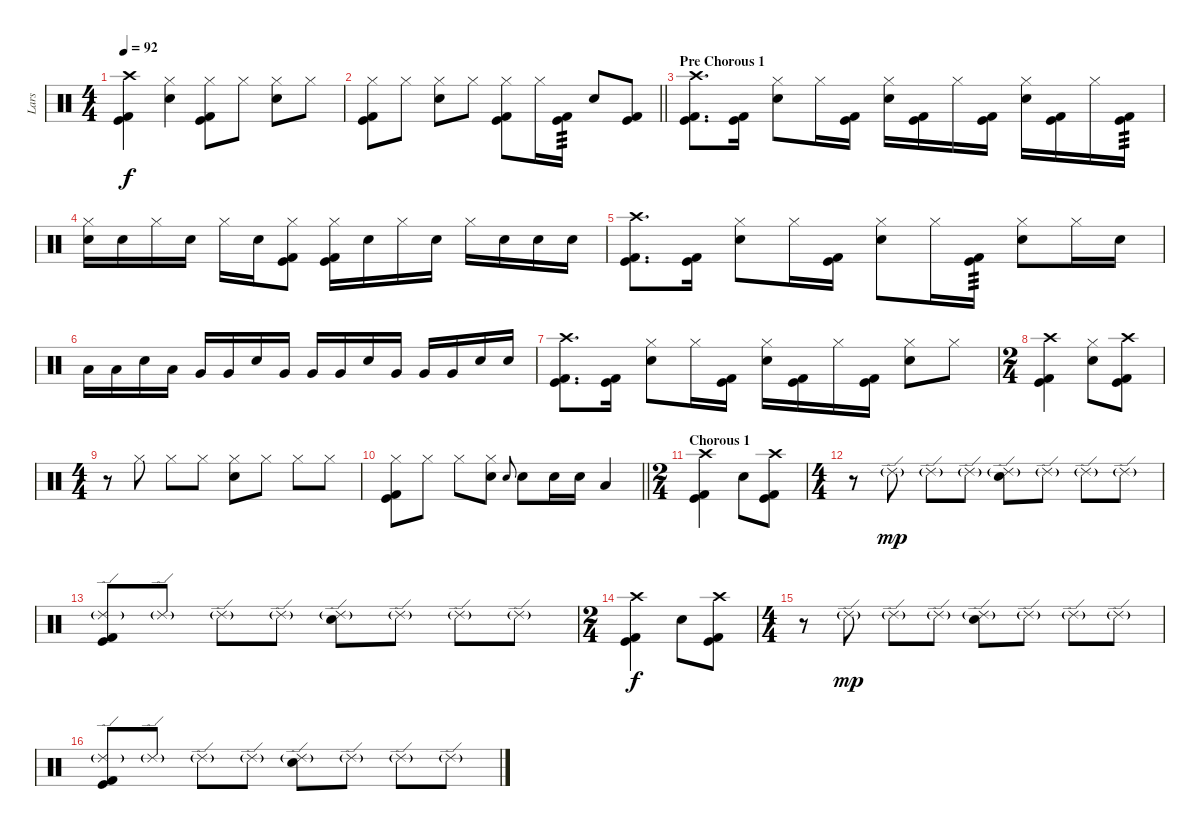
\track ("Lars" "Lars") {instrument percussion}
\staff {score}
\articulation defaults
\ts (4 4)
\tempo 92
\clef neutral
\ks c
("Crash high (hit)" "Kick (hit)" "Kick (hit) 2").4{dy f} ("Hi-Hat (closed)" "Electric Snare (hit)").4 ("Hi-Hat (closed)" "Kick (hit)" "Kick (hit) 2").8 "Hi-Hat (closed)".8 ("Hi-Hat (closed)" "Electric Snare (hit)").8 "Hi-Hat (closed)".8 |
\barLineRight lightlight
("Hi-Hat (closed)" "Kick (hit)" "Kick (hit) 2").8 "Hi-Hat (closed)".8 ("Hi-Hat (closed)" "Electric Snare (hit)").8 "Hi-Hat (closed)".8 ("Hi-Hat (closed)" "Kick (hit)" "Kick (hit) 2").8 "Hi-Hat (closed)".16 ("Kick (hit)" "Kick (hit) 2").16{tp 3} "Electric Snare (hit)".8 ("Kick (hit)" "Kick (hit) 2").8 |
\section ("" "Pre Chorous 1")
("Crash high (hit)" "Kick (hit)" "Kick (hit) 2").8{d} ("Kick (hit)" "Kick (hit) 2").16 ("Hi-Hat (closed)" "Electric Snare (hit)").8 "Hi-Hat (closed)".16 ("Kick (hit)" "Kick (hit) 2").16 ("Hi-Hat (closed)" "Electric Snare (hit)").16 ("Kick (hit)" "Kick (hit) 2").16 "Hi-Hat (closed)".16 ("Kick (hit)" "Kick (hit) 2").16 ("Hi-Hat (closed)" "Electric Snare (hit)").16 ("Kick (hit)" "Kick (hit) 2").16 "Hi-Hat (closed)".16 ("Kick (hit)" "Kick (hit) 2").16{tp 3} |
("Hi-Hat (closed)" "Electric Snare (hit)").16 "Electric Snare (hit)".16 "Hi-Hat (closed)".16 "Electric Snare (hit)".16 "Hi-Hat (closed)".16 "Electric Snare (hit)".16 ("Hi-Hat (closed)" "Kick (hit)" "Kick (hit) 2").8 ("Hi-Hat (closed)" "Kick (hit)" "Kick (hit) 2").16 "Electric Snare (hit)".16 "Hi-Hat (closed)".16 "Electric Snare (hit)".16 "Hi-Hat (closed)".16 "Electric Snare (hit)".16 "Electric Snare (hit)".16 "Electric Snare (hit)".16 |
("Crash high (hit)" "Kick (hit)" "Kick (hit) 2").8{d} ("Kick (hit)" "Kick (hit) 2").16 ("Hi-Hat (closed)" "Electric Snare (hit)").8 "Hi-Hat (closed)".16 ("Kick (hit)" "Kick (hit) 2").16 ("Hi-Hat (closed)" "Electric Snare (hit)").8 "Hi-Hat (closed)".16 ("Kick (hit)" "Kick (hit) 2").16{tp 3} ("Hi-Hat (closed)" "Electric Snare (hit)").8 "Hi-Hat (closed)".16 "Electric Snare (hit)".16 |
"Low Tom (hit)".16 "Low Tom (hit)".16 "Electric Snare (hit)".16 "Low Tom (hit)".16 "Very Low Tom (hit)".16 "Very Low Tom (hit)".16 "Electric Snare (hit)".16 "Very Low Tom (hit)".16 "Very Low Tom (hit)".16 "Very Low Tom (hit)".16 "Electric Snare (hit)".16 "Very Low Tom (hit)".16 "Very Low Tom (hit)".16 "Very Low Tom (hit)".16 "Electric Snare (hit)".16 "Electric Snare (hit)".16 |
("Crash high (hit)" "Kick (hit)" "Kick (hit) 2").8{d} ("Kick (hit)" "Kick (hit) 2").16 ("Hi-Hat (closed)" "Electric Snare (hit)").8 "Hi-Hat (closed)".16 ("Kick (hit)" "Kick (hit) 2").16 ("Hi-Hat (closed)" "Electric Snare (hit)").16 ("Kick (hit)" "Kick (hit) 2").16 "Hi-Hat (closed)".16 ("Kick (hit)" "Kick (hit) 2").16 ("Hi-Hat (closed)" "Electric Snare (hit)").8 "Hi-Hat (closed)".8 |
\ts (2 4)
("Crash high (hit)" "Kick (hit)" "Kick (hit) 2").4 ("Hi-Hat (closed)" "Electric Snare (hit)").8 ("Crash high (hit)" "Kick (hit)" "Kick (hit) 2").8 |
\ts (4 4)
r.8 "Hi-Hat (closed)".8 "Hi-Hat (closed)".8 "Hi-Hat (closed)".8 ("Hi-Hat (closed)" "Electric Snare (hit)").8 "Hi-Hat (closed)".8 "Hi-Hat (closed)".8 "Hi-Hat (closed)".8 |
\barLineRight lightlight
("Hi-Hat (closed)" "Kick (hit)" "Kick (hit) 2").8 "Hi-Hat (closed)".8 "Hi-Hat (closed)".8 ("Hi-Hat (closed)" "Electric Snare (hit)").8 "Electric Snare (hit)".8{gr onbeat} "Electric Snare (hit)".8 "Electric Snare (hit)".16 "Electric Snare (hit)".16 "Low Tom (hit)".4 |
\ts (2 4)
\section ("" "Chorous 1")
("Crash high (hit)" "Kick (hit)" "Kick (hit) 2").4 "Electric Snare (hit)".8 ("Crash high (hit)" "Kick (hit)" "Kick (hit) 2").8 |
\ts (4 4)
r.8 "Ride (edge) 2"{g}.8{dy mp} "Ride (edge) 2"{g}.8 "Ride (edge) 2"{g}.8 ("Ride (edge) 2"{g} "Electric Snare (hit)").8 "Ride (edge) 2"{g}.8 "Ride (edge) 2"{g}.8 "Ride (edge) 2"{g}.8 |
("Ride (edge) 2"{g} "Kick (hit)" "Kick (hit) 2").8 "Ride (edge) 2"{g}.8 "Ride (edge) 2"{g}.8 "Ride (edge) 2"{g}.8 ("Ride (edge) 2"{g} "Electric Snare (hit)").8 "Ride (edge) 2"{g}.8 "Ride (edge) 2"{g}.8 "Ride (edge) 2"{g}.8 |
\ts (2 4)
("Crash high (hit)" "Kick (hit)" "Kick (hit) 2").4{dy f} "Electric Snare (hit)".8 ("Crash high (hit)" "Kick (hit)" "Kick (hit) 2").8 |
\ts (4 4)
r.8 "Ride (edge) 2"{g}.8{dy mp} "Ride (edge) 2"{g}.8 "Ride (edge) 2"{g}.8 ("Ride (edge) 2"{g} "Electric Snare (hit)").8 "Ride (edge) 2"{g}.8 "Ride (edge) 2"{g}.8 "Ride (edge) 2"{g}.8 |
("Ride (edge) 2"{g} "Kick (hit)" "Kick (hit) 2").8 "Ride (edge) 2"{g}.8 "Ride (edge) 2"{g}.8 "Ride (edge) 2"{g}.8 ("Ride (edge) 2"{g} "Electric Snare (hit)").8 "Ride (edge) 2"{g}.8 "Ride (edge) 2"{g}.8 "Ride (edge) 2"{g}.8
